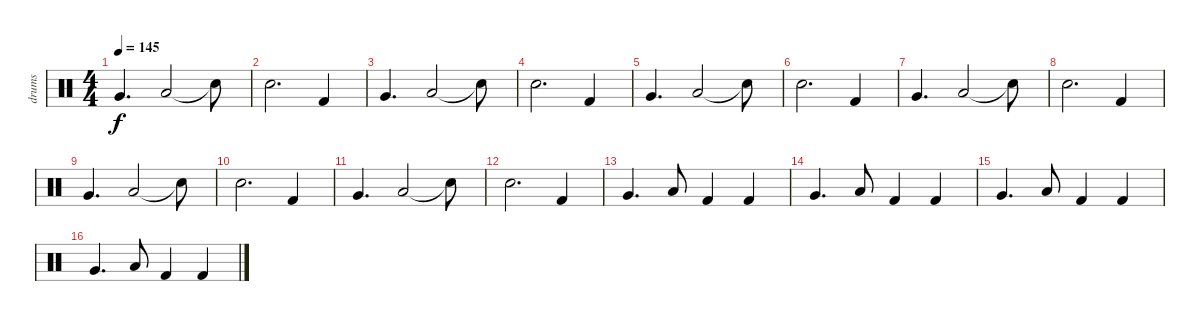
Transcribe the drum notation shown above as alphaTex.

\track ("drums" "drums") {instrument percussion}
\staff {score}
\articulation defaults
\ts (4 4)
\tempo 145
\clef neutral
\ks c "Very Low Tom (hit)".4{d dy f} "Low Floor Tom (hit)".2 "Snare (hit)"{t}.8
|
"Snare (hit) 2".2{d} "Kick (hit) 2".4 |
"Very Low Tom (hit)".4{d} "Low Floor Tom (hit)".2 "Snare (hit)"{t}.8 |
"Snare (hit) 2".2{d} "Kick (hit) 2".4 |
"Very Low Tom (hit)".4{d} "Low Floor Tom (hit)".2 "Snare (hit)"{t}.8 |
"Snare (hit) 2".2{d} "Kick (hit) 2".4 |
"Very Low Tom (hit)".4{d} "Low Floor Tom (hit)".2 "Snare (hit)"{t}.8 |
"Snare (hit) 2".2{d} "Kick (hit) 2".4 |
"Very Low Tom (hit)".4{d} "Low Floor Tom (hit)".2 "Snare (hit)"{t}.8 |
"Snare (hit) 2".2{d} "Kick (hit) 2".4 |
"Very Low Tom (hit)".4{d} "Low Floor Tom (hit)".2 "Snare (hit)"{t}.8 |
"Snare (hit) 2".2{d} "Kick (hit) 2".4 |
"Very Low Tom (hit)".4{d} "Low Floor Tom (hit)".8 "Kick (hit) 2".4 "Kick (hit) 2".4 |
"Very Low Tom (hit)".4{d} "Low Floor Tom (hit)".8 "Kick (hit) 2".4 "Kick (hit) 2".4 |
"Very Low Tom (hit)".4{d} "Low Floor Tom (hit)".8 "Kick (hit) 2".4 "Kick (hit) 2".4 |
"Very Low Tom (hit)".4{d} "Low Floor Tom (hit)".8 "Kick (hit) 2".4 "Kick (hit) 2".4
